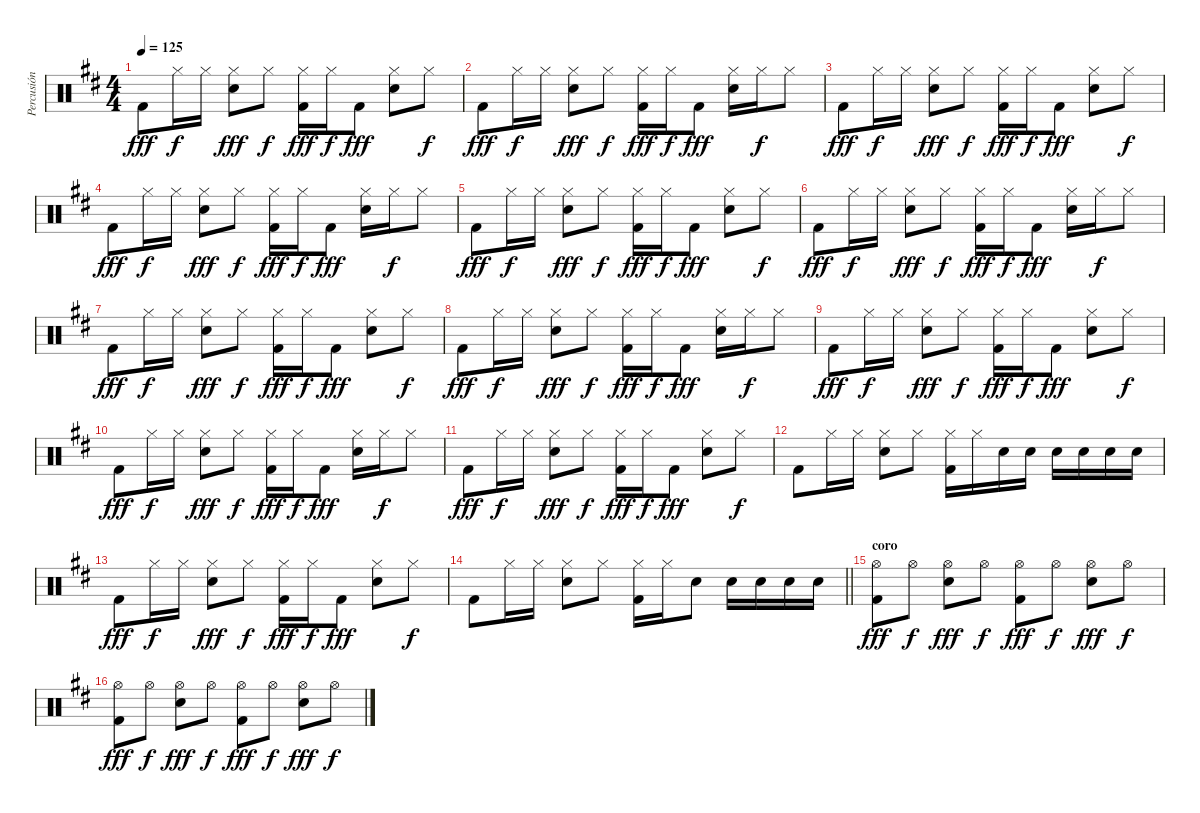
\track ("Percusión" "Percusión") {instrument percussion}
\staff {score}
\articulation defaults
\ts (4 4)
\tempo 125
\clef neutral
\ks d "Kick (hit) 2".8{dy fff} "Hi-Hat (closed)".16{dy f} "Hi-Hat (closed)".16
("Hi-Hat (closed)" "Electric Snare (hit)").8{dy fff} "Hi-Hat (closed)".8{dy f} ("Hi-Hat (closed)" "Kick (hit) 2").16{dy fff} "Hi-Hat (closed)".16{dy f} "Kick (hit) 2".8{dy fff} ("Hi-Hat (closed)" "Electric Snare (hit)").8 "Hi-Hat (closed)".8{dy f} |
"Kick (hit) 2".8{dy fff} "Hi-Hat (closed)".16{dy f} "Hi-Hat (closed)".16 ("Hi-Hat (closed)" "Electric Snare (hit)").8{dy fff} "Hi-Hat (closed)".8{dy f} ("Hi-Hat (closed)" "Kick (hit) 2").16{dy fff} "Hi-Hat (closed)".16{dy f} "Kick (hit) 2".8{dy fff} ("Hi-Hat (closed)" "Electric Snare (hit)").16 "Hi-Hat (closed)".16{dy f} "Hi-Hat (closed)".8 |
"Kick (hit) 2".8{dy fff} "Hi-Hat (closed)".16{dy f} "Hi-Hat (closed)".16 ("Hi-Hat (closed)" "Electric Snare (hit)").8{dy fff} "Hi-Hat (closed)".8{dy f} ("Hi-Hat (closed)" "Kick (hit) 2").16{dy fff} "Hi-Hat (closed)".16{dy f} "Kick (hit) 2".8{dy fff} ("Hi-Hat (closed)" "Electric Snare (hit)").8 "Hi-Hat (closed)".8{dy f} |
"Kick (hit) 2".8{dy fff} "Hi-Hat (closed)".16{dy f} "Hi-Hat (closed)".16 ("Hi-Hat (closed)" "Electric Snare (hit)").8{dy fff} "Hi-Hat (closed)".8{dy f} ("Hi-Hat (closed)" "Kick (hit) 2").16{dy fff} "Hi-Hat (closed)".16{dy f} "Kick (hit) 2".8{dy fff} ("Hi-Hat (closed)" "Electric Snare (hit)").16 "Hi-Hat (closed)".16{dy f} "Hi-Hat (closed)".8 |
"Kick (hit) 2".8{dy fff} "Hi-Hat (closed)".16{dy f} "Hi-Hat (closed)".16 ("Hi-Hat (closed)" "Electric Snare (hit)").8{dy fff} "Hi-Hat (closed)".8{dy f} ("Hi-Hat (closed)" "Kick (hit) 2").16{dy fff} "Hi-Hat (closed)".16{dy f} "Kick (hit) 2".8{dy fff} ("Hi-Hat (closed)" "Electric Snare (hit)").8 "Hi-Hat (closed)".8{dy f} |
"Kick (hit) 2".8{dy fff} "Hi-Hat (closed)".16{dy f} "Hi-Hat (closed)".16 ("Hi-Hat (closed)" "Electric Snare (hit)").8{dy fff} "Hi-Hat (closed)".8{dy f} ("Hi-Hat (closed)" "Kick (hit) 2").16{dy fff} "Hi-Hat (closed)".16{dy f} "Kick (hit) 2".8{dy fff} ("Hi-Hat (closed)" "Electric Snare (hit)").16 "Hi-Hat (closed)".16{dy f} "Hi-Hat (closed)".8 |
"Kick (hit) 2".8{dy fff} "Hi-Hat (closed)".16{dy f} "Hi-Hat (closed)".16 ("Hi-Hat (closed)" "Electric Snare (hit)").8{dy fff} "Hi-Hat (closed)".8{dy f} ("Hi-Hat (closed)" "Kick (hit) 2").16{dy fff} "Hi-Hat (closed)".16{dy f} "Kick (hit) 2".8{dy fff} ("Hi-Hat (closed)" "Electric Snare (hit)").8 "Hi-Hat (closed)".8{dy f} |
"Kick (hit) 2".8{dy fff} "Hi-Hat (closed)".16{dy f} "Hi-Hat (closed)".16 ("Hi-Hat (closed)" "Electric Snare (hit)").8{dy fff} "Hi-Hat (closed)".8{dy f} ("Hi-Hat (closed)" "Kick (hit) 2").16{dy fff} "Hi-Hat (closed)".16{dy f} "Kick (hit) 2".8{dy fff} ("Hi-Hat (closed)" "Electric Snare (hit)").16 "Hi-Hat (closed)".16{dy f} "Hi-Hat (closed)".8 |
"Kick (hit) 2".8{dy fff} "Hi-Hat (closed)".16{dy f} "Hi-Hat (closed)".16 ("Hi-Hat (closed)" "Electric Snare (hit)").8{dy fff} "Hi-Hat (closed)".8{dy f} ("Hi-Hat (closed)" "Kick (hit) 2").16{dy fff} "Hi-Hat (closed)".16{dy f} "Kick (hit) 2".8{dy fff} ("Hi-Hat (closed)" "Electric Snare (hit)").8 "Hi-Hat (closed)".8{dy f} |
"Kick (hit) 2".8{dy fff} "Hi-Hat (closed)".16{dy f} "Hi-Hat (closed)".16 ("Hi-Hat (closed)" "Electric Snare (hit)").8{dy fff} "Hi-Hat (closed)".8{dy f} ("Hi-Hat (closed)" "Kick (hit) 2").16{dy fff} "Hi-Hat (closed)".16{dy f} "Kick (hit) 2".8{dy fff} ("Hi-Hat (closed)" "Electric Snare (hit)").16 "Hi-Hat (closed)".16{dy f} "Hi-Hat (closed)".8 |
"Kick (hit) 2".8{dy fff} "Hi-Hat (closed)".16{dy f} "Hi-Hat (closed)".16 ("Hi-Hat (closed)" "Electric Snare (hit)").8{dy fff} "Hi-Hat (closed)".8{dy f} ("Hi-Hat (closed)" "Kick (hit) 2").16{dy fff} "Hi-Hat (closed)".16{dy f} "Kick (hit) 2".8{dy fff} ("Hi-Hat (closed)" "Electric Snare (hit)").8 "Hi-Hat (closed)".8{dy f} |
"Kick (hit) 2".8 "Hi-Hat (closed)".16 "Hi-Hat (closed)".16 ("Hi-Hat (closed)" "Electric Snare (hit)").8 "Hi-Hat (closed)".8 ("Hi-Hat (closed)" "Kick (hit) 2").16 "Hi-Hat (closed)".16 "Electric Snare (hit)".16 "Electric Snare (hit)".16 "Electric Snare (hit)".16 "Electric Snare (hit)".16 "Electric Snare (hit)".16 "Electric Snare (hit)".16 |
"Kick (hit) 2".8{dy fff} "Hi-Hat (closed)".16{dy f} "Hi-Hat (closed)".16 ("Hi-Hat (closed)" "Electric Snare (hit)").8{dy fff} "Hi-Hat (closed)".8{dy f} ("Hi-Hat (closed)" "Kick (hit) 2").16{dy fff} "Hi-Hat (closed)".16{dy f} "Kick (hit) 2".8{dy fff} ("Hi-Hat (closed)" "Electric Snare (hit)").8 "Hi-Hat (closed)".8{dy f} |
\barLineRight lightlight "Kick (hit) 2".8 "Hi-Hat (closed)".16 "Hi-Hat (closed)".16
("Hi-Hat (closed)" "Electric Snare (hit)").8 "Hi-Hat (closed)".8 ("Hi-Hat (closed)" "Kick (hit) 2").16 "Hi-Hat (closed)".16 "Electric Snare (hit)".8 "Electric Snare (hit)".16 "Electric Snare (hit)".16 "Electric Snare (hit)".16 "Electric Snare (hit)".16 |
\section ("" "coro")
("Hi-Hat (open)" "Kick (hit) 2").8{dy fff} "Hi-Hat (open)".8{dy f} ("Hi-Hat (open)" "Electric Snare (hit)").8{dy fff} "Hi-Hat (open)".8{dy f} ("Hi-Hat (open)" "Kick (hit) 2").8{dy fff} "Hi-Hat (open)".8{dy f} ("Hi-Hat (open)" "Electric Snare (hit)").8{dy fff} "Hi-Hat (open)".8{dy f} |
("Hi-Hat (open)" "Kick (hit) 2").8{dy fff} "Hi-Hat (open)".8{dy f} ("Hi-Hat (open)" "Electric Snare (hit)").8{dy fff} "Hi-Hat (open)".8{dy f} ("Hi-Hat (open)" "Kick (hit) 2").8{dy fff} "Hi-Hat (open)".8{dy f} ("Hi-Hat (open)" "Electric Snare (hit)").8{dy fff} "Hi-Hat (open)".8{dy f}
